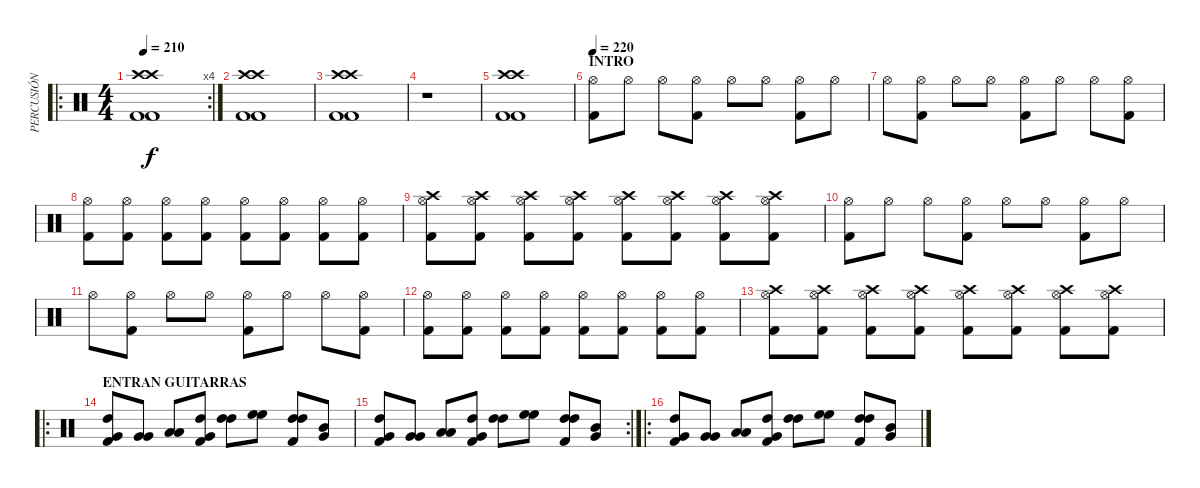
\track ("PERCUSIÓN" "PERCUSIÓN") {instrument percussion}
\staff {score}
\articulation defaults
\ro
\rc 4
\ts (4 4)
\tempo 210
\clef neutral
\ks c
("Crash high (hit)" "Kick (hit) 2" "Crash high (hit)" "Kick (hit) 2").1{dy f} |
("Crash high (hit)" "Kick (hit) 2" "Crash high (hit)" "Kick (hit) 2").1 |
("Kick (hit) 2" "Crash high (hit)" "Kick (hit) 2" "Crash high (hit)").1 |
r.1 |
("Kick (hit) 2" "Crash high (hit)" "Kick (hit) 2" "Crash high (hit)").1 |
\section ("" "INTRO")
\tempo 220
("Hi-Hat (open)" "Kick (hit) 2").8 "Hi-Hat (open)".8 "Hi-Hat (open)".8 ("Hi-Hat (open)" "Kick (hit) 2").8 "Hi-Hat (open)".8 "Hi-Hat (open)".8 ("Hi-Hat (open)" "Kick (hit) 2").8 "Hi-Hat (open)".8 |
"Hi-Hat (open)".8 ("Hi-Hat (open)" "Kick (hit) 2").8 "Hi-Hat (open)".8 "Hi-Hat (open)".8 ("Hi-Hat (open)" "Kick (hit) 2").8 "Hi-Hat (open)".8 "Hi-Hat (open)".8 ("Hi-Hat (open)" "Kick (hit) 2").8 |
("Hi-Hat (open)" "Kick (hit) 2").8 ("Hi-Hat (open)" "Kick (hit) 2").8 ("Hi-Hat (open)" "Kick (hit) 2").8 ("Hi-Hat (open)" "Kick (hit) 2").8 ("Hi-Hat (open)" "Kick (hit) 2").8 ("Hi-Hat (open)" "Kick (hit) 2").8 ("Hi-Hat (open)" "Kick (hit) 2").8 ("Hi-Hat (open)" "Kick (hit) 2").8 |
("Crash high (hit)" "Hi-Hat (open)" "Kick (hit) 2").8 ("Crash high (hit)" "Hi-Hat (open)" "Kick (hit) 2").8 ("Crash high (hit)" "Hi-Hat (open)" "Kick (hit) 2").8 ("Crash high (hit)" "Hi-Hat (open)" "Kick (hit) 2").8 ("Crash high (hit)" "Hi-Hat (open)" "Kick (hit) 2").8 ("Crash high (hit)" "Hi-Hat (open)" "Kick (hit) 2").8 ("Crash high (hit)" "Hi-Hat (open)" "Kick (hit) 2").8 ("Crash high (hit)" "Hi-Hat (open)" "Kick (hit) 2").8 |
("Hi-Hat (open)" "Kick (hit) 2").8 "Hi-Hat (open)".8 "Hi-Hat (open)".8 ("Hi-Hat (open)" "Kick (hit) 2").8 "Hi-Hat (open)".8 "Hi-Hat (open)".8 ("Hi-Hat (open)" "Kick (hit) 2").8 "Hi-Hat (open)".8 |
"Hi-Hat (open)".8 ("Hi-Hat (open)" "Kick (hit) 2").8 "Hi-Hat (open)".8 "Hi-Hat (open)".8 ("Hi-Hat (open)" "Kick (hit) 2").8 "Hi-Hat (open)".8 "Hi-Hat (open)".8 ("Hi-Hat (open)" "Kick (hit) 2").8 |
("Hi-Hat (open)" "Kick (hit) 2").8 ("Hi-Hat (open)" "Kick (hit) 2").8 ("Hi-Hat (open)" "Kick (hit) 2").8 ("Hi-Hat (open)" "Kick (hit) 2").8 ("Hi-Hat (open)" "Kick (hit) 2").8 ("Hi-Hat (open)" "Kick (hit) 2").8 ("Hi-Hat (open)" "Kick (hit) 2").8 ("Hi-Hat (open)" "Kick (hit) 2").8 |
("Crash high (hit)" "Hi-Hat (open)" "Kick (hit) 2").8 ("Crash high (hit)" "Hi-Hat (open)" "Kick (hit) 2").8 ("Crash high (hit)" "Hi-Hat (open)" "Kick (hit) 2").8 ("Crash high (hit)" "Hi-Hat (open)" "Kick (hit) 2").8 ("Crash high (hit)" "Hi-Hat (open)" "Kick (hit) 2").8 ("Crash high (hit)" "Hi-Hat (open)" "Kick (hit) 2").8 ("Crash high (hit)" "Hi-Hat (open)" "Kick (hit) 2").8 ("Crash high (hit)" "Hi-Hat (open)" "Kick (hit) 2").8 |
\ro
\section ("" "ENTRAN GUITARRAS")
("Kick (hit) 2" "Very Low Tom (hit)" "High Tom (hit)").8 ("Very Low Tom (hit)" "Very Low Tom (hit)").8 ("Low Tom (hit)" "Low Tom (hit)").8 ("Kick (hit) 2" "High Tom (hit)" "Very Low Tom (hit)").8 ("High Tom (hit)" "High Tom (hit)").8 ("High Floor Tom (hit)" "High Floor Tom (hit)").8 ("Kick (hit) 2" "High Tom (hit)" "High Tom (hit)").8 ("Mid Tom (hit)" "Very Low Tom (hit)").8 |
\rc 2
("Kick (hit) 2" "Very Low Tom (hit)" "High Tom (hit)").8 ("Very Low Tom (hit)" "Very Low Tom (hit)").8 ("Low Tom (hit)" "Low Tom (hit)").8 ("Kick (hit) 2" "High Tom (hit)" "Very Low Tom (hit)").8 ("High Tom (hit)" "High Tom (hit)").8 ("High Floor Tom (hit)" "High Floor Tom (hit)").8 ("Kick (hit) 2" "High Tom (hit)" "High Tom (hit)").8 ("Mid Tom (hit)" "Very Low Tom (hit)").8 |
\ro
("Kick (hit) 2" "Very Low Tom (hit)" "High Tom (hit)").8 ("Very Low Tom (hit)" "Very Low Tom (hit)").8 ("Low Tom (hit)" "Low Tom (hit)").8 ("Kick (hit) 2" "High Tom (hit)" "Very Low Tom (hit)").8 ("High Tom (hit)" "High Tom (hit)").8 ("High Floor Tom (hit)" "High Floor Tom (hit)").8 ("Kick (hit) 2" "High Tom (hit)" "High Tom (hit)").8 ("Mid Tom (hit)" "Very Low Tom (hit)").8
